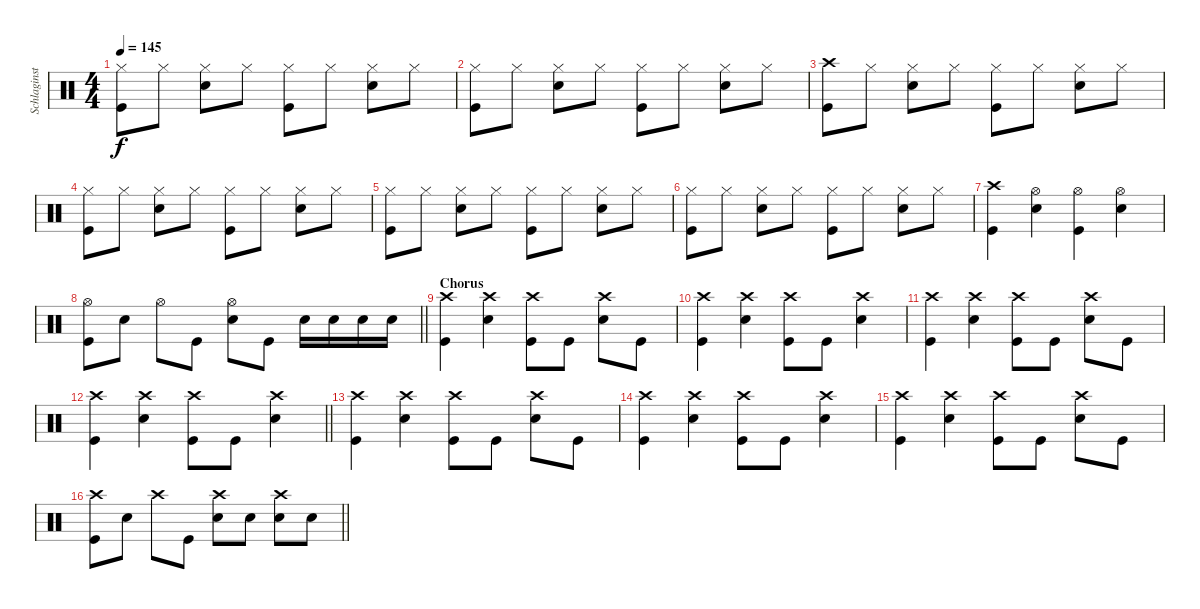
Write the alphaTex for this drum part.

\track ("Schlaginstrumente - Auswahl" "Schlaginst") {instrument percussion}
\staff {score}
\articulation defaults
\ts (4 4)
\tempo 145
\clef neutral
\ks c
("Hi-Hat (closed)" "Kick (hit)").8{dy f} "Hi-Hat (closed)".8 ("Hi-Hat (closed)" "Snare (hit) 2").8 "Hi-Hat (closed)".8 ("Hi-Hat (closed)" "Kick (hit)").8 "Hi-Hat (closed)".8 ("Hi-Hat (closed)" "Snare (hit) 2").8 "Hi-Hat (closed)".8 |
("Hi-Hat (closed)" "Kick (hit)").8 "Hi-Hat (closed)".8 ("Hi-Hat (closed)" "Snare (hit) 2").8 "Hi-Hat (closed)".8 ("Hi-Hat (closed)" "Kick (hit)").8 "Hi-Hat (closed)".8 ("Hi-Hat (closed)" "Snare (hit) 2").8 "Hi-Hat (closed)".8 |
("Crash high (hit)" "Kick (hit)").8 "Hi-Hat (closed)".8 ("Hi-Hat (closed)" "Snare (hit) 2").8 "Hi-Hat (closed)".8 ("Hi-Hat (closed)" "Kick (hit)").8 "Hi-Hat (closed)".8 ("Hi-Hat (closed)" "Snare (hit) 2").8 "Hi-Hat (closed)".8 |
("Hi-Hat (closed)" "Kick (hit)").8 "Hi-Hat (closed)".8 ("Hi-Hat (closed)" "Snare (hit) 2").8 "Hi-Hat (closed)".8 ("Hi-Hat (closed)" "Kick (hit)").8 "Hi-Hat (closed)".8 ("Hi-Hat (closed)" "Snare (hit) 2").8 "Hi-Hat (closed)".8 |
("Hi-Hat (closed)" "Kick (hit)").8 "Hi-Hat (closed)".8 ("Hi-Hat (closed)" "Snare (hit) 2").8 "Hi-Hat (closed)".8 ("Hi-Hat (closed)" "Kick (hit)").8 "Hi-Hat (closed)".8 ("Hi-Hat (closed)" "Snare (hit) 2").8 "Hi-Hat (closed)".8 |
("Hi-Hat (closed)" "Kick (hit)").8 "Hi-Hat (closed)".8 ("Hi-Hat (closed)" "Snare (hit) 2").8 "Hi-Hat (closed)".8 ("Hi-Hat (closed)" "Kick (hit)").8 "Hi-Hat (closed)".8 ("Hi-Hat (closed)" "Snare (hit) 2").8 "Hi-Hat (closed)".8 |
("Crash high (hit)" "Kick (hit)").4 ("Snare (hit) 2" "Hi-Hat (open)").4 ("Kick (hit)" "Hi-Hat (open)").4 ("Snare (hit) 2" "Hi-Hat (open)").4 |
\barLineRight lightlight
("Kick (hit)" "Hi-Hat (open)").8 "Snare (hit) 2".8 "Hi-Hat (open)".8 "Kick (hit)".8 ("Snare (hit) 2" "Hi-Hat (open)").8 "Kick (hit)".8 "Snare (hit) 2".16 "Snare (hit) 2".16 "Snare (hit) 2".16 "Snare (hit) 2".16 |
\section ("" "Chorus")
("Kick (hit)" "Crash high (hit)").4 ("Snare (hit) 2" "Crash high (hit)").4 ("Kick (hit)" "Crash high (hit)").8 "Kick (hit)".8 ("Snare (hit) 2" "Crash high (hit)").8 "Kick (hit)".8 |
("Kick (hit)" "Crash high (hit)").4 ("Snare (hit) 2" "Crash high (hit)").4 ("Kick (hit)" "Crash high (hit)").8 "Kick (hit)".8 ("Snare (hit) 2" "Crash high (hit)").4 |
("Kick (hit)" "Crash high (hit)").4 ("Snare (hit) 2" "Crash high (hit)").4 ("Kick (hit)" "Crash high (hit)").8 "Kick (hit)".8 ("Snare (hit) 2" "Crash high (hit)").8 "Kick (hit)".8 |
\barLineRight lightlight
("Kick (hit)" "Crash high (hit)").4 ("Snare (hit) 2" "Crash high (hit)").4 ("Kick (hit)" "Crash high (hit)").8 "Kick (hit)".8 ("Snare (hit) 2" "Crash high (hit)").4 |
("Kick (hit)" "Crash high (hit)").4 ("Snare (hit) 2" "Crash high (hit)").4 ("Kick (hit)" "Crash high (hit)").8 "Kick (hit)".8 ("Snare (hit) 2" "Crash high (hit)").8 "Kick (hit)".8 |
("Kick (hit)" "Crash high (hit)").4 ("Snare (hit) 2" "Crash high (hit)").4 ("Kick (hit)" "Crash high (hit)").8 "Kick (hit)".8 ("Snare (hit) 2" "Crash high (hit)").4 |
("Kick (hit)" "Crash high (hit)").4 ("Snare (hit) 2" "Crash high (hit)").4 ("Kick (hit)" "Crash high (hit)").8 "Kick (hit)".8 ("Snare (hit) 2" "Crash high (hit)").8 "Kick (hit)".8 |
\barLineRight lightlight
("Kick (hit)" "Crash high (hit)").8 "Snare (hit) 2".8 "Crash high (hit)".8 "Kick (hit)".8 ("Snare (hit) 2" "Crash high (hit)").8 "Snare (hit) 2".8 ("Snare (hit) 2" "Crash high (hit)").8 "Snare (hit) 2".8
